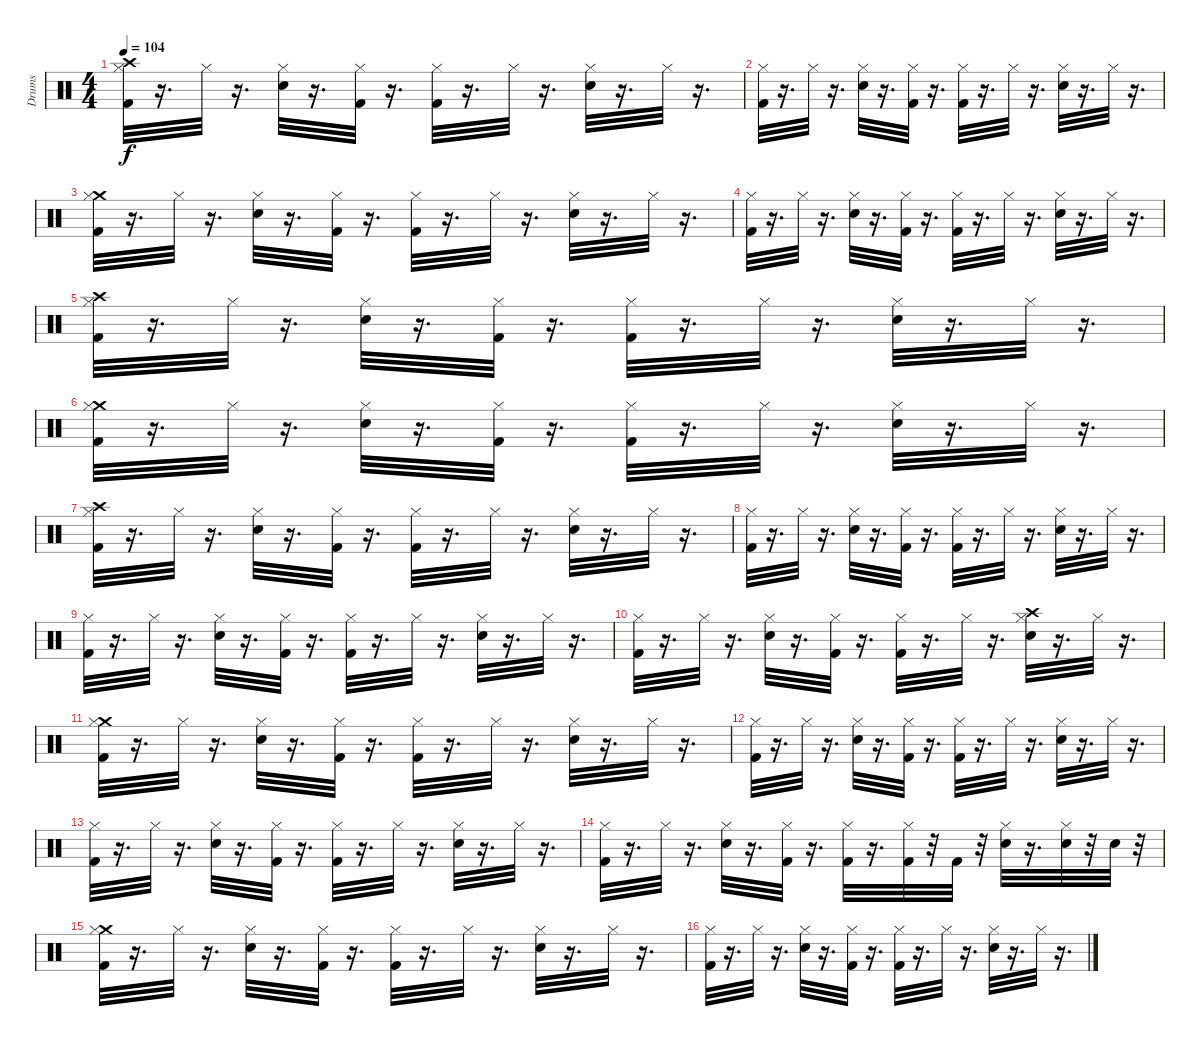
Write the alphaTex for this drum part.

\track ("Drums" "Drums") {instrument percussion}
\staff {score}
\articulation defaults
\ts (4 4)
\tempo 104
\clef neutral
\ks c
("Crash high (hit)" "Hi-Hat (closed)" "Kick (hit) 2").32{dy f} r.16{d} "Hi-Hat (closed)".32 r.16{d} ("Hi-Hat (closed)" "Snare (hit) 2").32 r.16{d} ("Kick (hit) 2" "Hi-Hat (closed)").32 r.16{d} ("Hi-Hat (closed)" "Kick (hit) 2").32 r.16{d} "Hi-Hat (closed)".32 r.16{d} ("Hi-Hat (closed)" "Snare (hit) 2").32 r.16{d} "Hi-Hat (closed)".32 r.16{d} |
("Hi-Hat (closed)" "Kick (hit) 2").32 r.16{d} "Hi-Hat (closed)".32 r.16{d} ("Hi-Hat (closed)" "Snare (hit) 2").32 r.16{d} ("Kick (hit) 2" "Hi-Hat (closed)").32 r.16{d} ("Hi-Hat (closed)" "Kick (hit) 2").32 r.16{d} "Hi-Hat (closed)".32 r.16{d} ("Hi-Hat (closed)" "Snare (hit) 2").32 r.16{d} "Hi-Hat (closed)".32 r.16{d} |
("Crash medium (hit)" "Hi-Hat (closed)" "Kick (hit) 2").32 r.16{d} "Hi-Hat (closed)".32 r.16{d} ("Hi-Hat (closed)" "Snare (hit) 2").32 r.16{d} ("Kick (hit) 2" "Hi-Hat (closed)").32 r.16{d} ("Hi-Hat (closed)" "Kick (hit) 2").32 r.16{d} "Hi-Hat (closed)".32 r.16{d} ("Hi-Hat (closed)" "Snare (hit) 2").32 r.16{d} "Hi-Hat (closed)".32 r.16{d} |
("Hi-Hat (closed)" "Kick (hit) 2").32 r.16{d} "Hi-Hat (closed)".32 r.16{d} ("Hi-Hat (closed)" "Snare (hit) 2").32 r.16{d} ("Kick (hit) 2" "Hi-Hat (closed)").32 r.16{d} ("Hi-Hat (closed)" "Kick (hit) 2").32 r.16{d} "Hi-Hat (closed)".32 r.16{d} ("Hi-Hat (closed)" "Snare (hit) 2").32 r.16{d} "Hi-Hat (closed)".32 r.16{d} |
("Crash high (hit)" "Hi-Hat (closed)" "Kick (hit) 2").32 r.16{d} "Hi-Hat (closed)".32 r.16{d} ("Hi-Hat (closed)" "Snare (hit) 2").32 r.16{d} ("Kick (hit) 2" "Hi-Hat (closed)").32 r.16{d} ("Hi-Hat (closed)" "Kick (hit) 2").32 r.16{d} "Hi-Hat (closed)".32 r.16{d} ("Hi-Hat (closed)" "Snare (hit) 2").32 r.16{d} "Hi-Hat (closed)".32 r.16{d} |
("Crash medium (hit)" "Hi-Hat (closed)" "Kick (hit) 2").32 r.16{d} "Hi-Hat (closed)".32 r.16{d} ("Hi-Hat (closed)" "Snare (hit) 2").32 r.16{d} ("Kick (hit) 2" "Hi-Hat (closed)").32 r.16{d} ("Hi-Hat (closed)" "Kick (hit) 2").32 r.16{d} "Hi-Hat (closed)".32 r.16{d} ("Hi-Hat (closed)" "Snare (hit) 2").32 r.16{d} "Hi-Hat (closed)".32 r.16{d} |
("Crash high (hit)" "Hi-Hat (closed)" "Kick (hit) 2").32 r.16{d} "Hi-Hat (closed)".32 r.16{d} ("Hi-Hat (closed)" "Snare (hit) 2").32 r.16{d} ("Kick (hit) 2" "Hi-Hat (closed)").32 r.16{d} ("Hi-Hat (closed)" "Kick (hit) 2").32 r.16{d} "Hi-Hat (closed)".32 r.16{d} ("Hi-Hat (closed)" "Snare (hit) 2").32 r.16{d} "Hi-Hat (closed)".32 r.16{d} |
("Hi-Hat (closed)" "Kick (hit) 2").32 r.16{d} "Hi-Hat (closed)".32 r.16{d} ("Hi-Hat (closed)" "Snare (hit) 2").32 r.16{d} ("Kick (hit) 2" "Hi-Hat (closed)").32 r.16{d} ("Hi-Hat (closed)" "Kick (hit) 2").32 r.16{d} "Hi-Hat (closed)".32 r.16{d} ("Hi-Hat (closed)" "Snare (hit) 2").32 r.16{d} "Hi-Hat (closed)".32 r.16{d} |
("Hi-Hat (closed)" "Kick (hit) 2").32 r.16{d} "Hi-Hat (closed)".32 r.16{d} ("Hi-Hat (closed)" "Snare (hit) 2").32 r.16{d} ("Kick (hit) 2" "Hi-Hat (closed)").32 r.16{d} ("Hi-Hat (closed)" "Kick (hit) 2").32 r.16{d} "Hi-Hat (closed)".32 r.16{d} ("Hi-Hat (closed)" "Snare (hit) 2").32 r.16{d} "Hi-Hat (closed)".32 r.16{d} |
("Hi-Hat (closed)" "Kick (hit) 2").32 r.16{d} "Hi-Hat (closed)".32 r.16{d} ("Hi-Hat (closed)" "Snare (hit) 2").32 r.16{d} ("Kick (hit) 2" "Hi-Hat (closed)").32 r.16{d} ("Hi-Hat (closed)" "Kick (hit) 2").32 r.16{d} "Hi-Hat (closed)".32 r.16{d} ("Crash high (hit)" "Hi-Hat (closed)" "Snare (hit) 2").32 r.16{d} "Hi-Hat (closed)".32 r.16{d} |
("Crash medium (hit)" "Hi-Hat (closed)" "Kick (hit) 2").32 r.16{d} "Hi-Hat (closed)".32 r.16{d} ("Hi-Hat (closed)" "Snare (hit) 2").32 r.16{d} ("Kick (hit) 2" "Hi-Hat (closed)").32 r.16{d} ("Hi-Hat (closed)" "Kick (hit) 2").32 r.16{d} "Hi-Hat (closed)".32 r.16{d} ("Hi-Hat (closed)" "Snare (hit) 2").32 r.16{d} "Hi-Hat (closed)".32 r.16{d} |
("Hi-Hat (closed)" "Kick (hit) 2").32 r.16{d} "Hi-Hat (closed)".32 r.16{d} ("Hi-Hat (closed)" "Snare (hit) 2").32 r.16{d} ("Kick (hit) 2" "Hi-Hat (closed)").32 r.16{d} ("Hi-Hat (closed)" "Kick (hit) 2").32 r.16{d} "Hi-Hat (closed)".32 r.16{d} ("Hi-Hat (closed)" "Snare (hit) 2").32 r.16{d} "Hi-Hat (closed)".32 r.16{d} |
("Hi-Hat (closed)" "Kick (hit) 2").32 r.16{d} "Hi-Hat (closed)".32 r.16{d} ("Hi-Hat (closed)" "Snare (hit) 2").32 r.16{d} ("Kick (hit) 2" "Hi-Hat (closed)").32 r.16{d} ("Hi-Hat (closed)" "Kick (hit) 2").32 r.16{d} "Hi-Hat (closed)".32 r.16{d} ("Hi-Hat (closed)" "Snare (hit) 2").32 r.16{d} "Hi-Hat (closed)".32 r.16{d} |
("Hi-Hat (closed)" "Kick (hit) 2").32 r.16{d} "Hi-Hat (closed)".32 r.16{d} ("Hi-Hat (closed)" "Snare (hit) 2").32 r.16{d} ("Kick (hit) 2" "Hi-Hat (closed)").32 r.16{d} ("Hi-Hat (closed)" "Kick (hit) 2").32 r.16{d} ("Kick (hit) 2" "Hi-Hat (closed)").32 r.32 "Kick (hit) 2".32 r.32 ("Hi-Hat (closed)" "Snare (hit) 2").32 r.16{d} ("Snare (hit) 2" "Hi-Hat (closed)").32 r.32 "Snare (hit) 2".32 r.32 |
("Crash medium (hit)" "Hi-Hat (closed)" "Kick (hit) 2").32 r.16{d} "Hi-Hat (closed)".32 r.16{d} ("Hi-Hat (closed)" "Snare (hit) 2").32 r.16{d} ("Kick (hit) 2" "Hi-Hat (closed)").32 r.16{d} ("Hi-Hat (closed)" "Kick (hit) 2").32 r.16{d} "Hi-Hat (closed)".32 r.16{d} ("Hi-Hat (closed)" "Snare (hit) 2").32 r.16{d} "Hi-Hat (closed)".32 r.16{d} |
("Hi-Hat (closed)" "Kick (hit) 2").32 r.16{d} "Hi-Hat (closed)".32 r.16{d} ("Hi-Hat (closed)" "Snare (hit) 2").32 r.16{d} ("Kick (hit) 2" "Hi-Hat (closed)").32 r.16{d} ("Hi-Hat (closed)" "Kick (hit) 2").32 r.16{d} "Hi-Hat (closed)".32 r.16{d} ("Hi-Hat (closed)" "Snare (hit) 2").32 r.16{d} "Hi-Hat (closed)".32 r.16{d}
